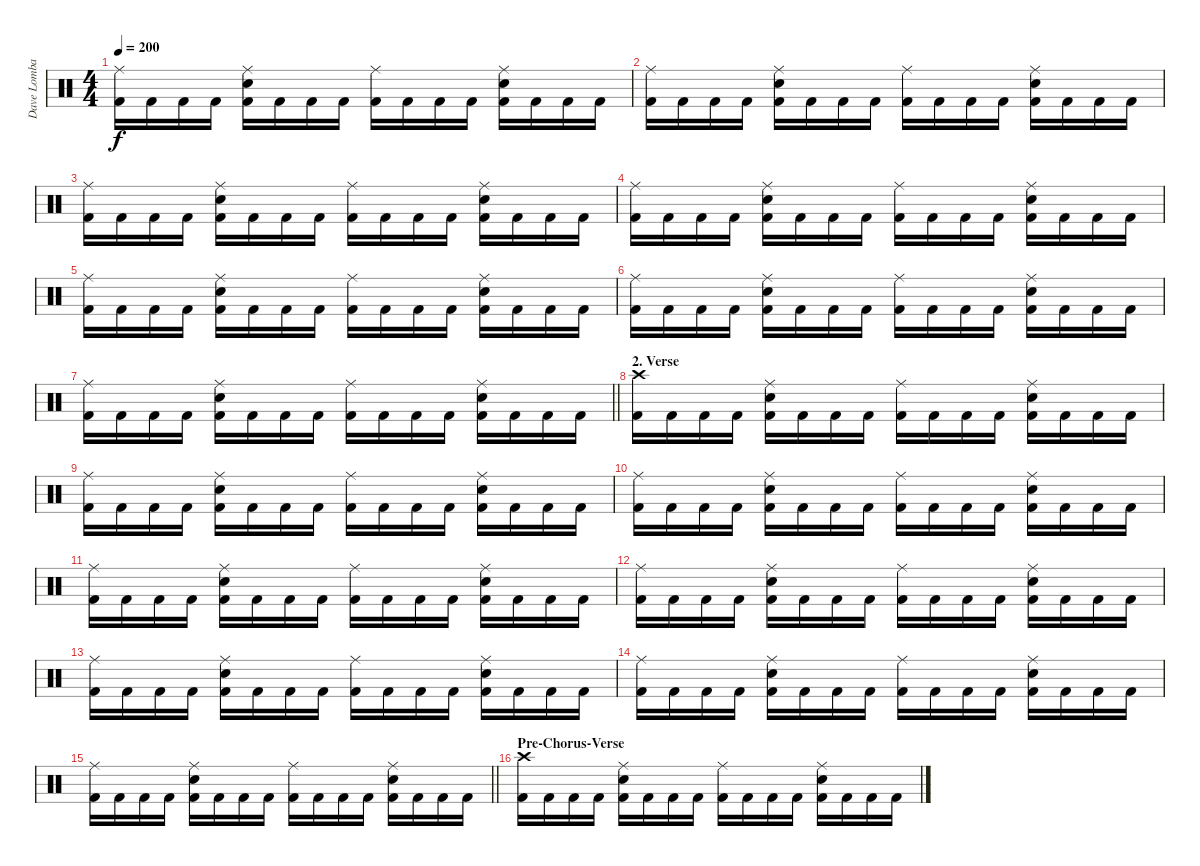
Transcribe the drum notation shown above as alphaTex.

\track ("Dave Lombardo (Drums)" "Dave Lomba") {instrument percussion}
\staff {score}
\articulation defaults
\ts (4 4)
\tempo 200
\clef neutral
\ks c
("Ride (middle)" "Kick (hit) 2").16{dy f} "Kick (hit) 2".16 "Kick (hit) 2".16 "Kick (hit) 2".16 ("Ride (middle)" "Snare (hit) 2" "Kick (hit) 2").16 "Kick (hit) 2".16 "Kick (hit) 2".16 "Kick (hit) 2".16 ("Ride (middle)" "Kick (hit) 2").16 "Kick (hit) 2".16 "Kick (hit) 2".16 "Kick (hit) 2".16 ("Ride (middle)" "Snare (hit) 2" "Kick (hit) 2").16 "Kick (hit) 2".16 "Kick (hit) 2".16 "Kick (hit) 2".16 |
("Ride (middle)" "Kick (hit) 2").16 "Kick (hit) 2".16 "Kick (hit) 2".16 "Kick (hit) 2".16 ("Ride (middle)" "Snare (hit) 2" "Kick (hit) 2").16 "Kick (hit) 2".16 "Kick (hit) 2".16 "Kick (hit) 2".16 ("Ride (middle)" "Kick (hit) 2").16 "Kick (hit) 2".16 "Kick (hit) 2".16 "Kick (hit) 2".16 ("Ride (middle)" "Snare (hit) 2" "Kick (hit) 2").16 "Kick (hit) 2".16 "Kick (hit) 2".16 "Kick (hit) 2".16 |
("Ride (middle)" "Kick (hit) 2").16 "Kick (hit) 2".16 "Kick (hit) 2".16 "Kick (hit) 2".16 ("Ride (middle)" "Snare (hit) 2" "Kick (hit) 2").16 "Kick (hit) 2".16 "Kick (hit) 2".16 "Kick (hit) 2".16 ("Ride (middle)" "Kick (hit) 2").16 "Kick (hit) 2".16 "Kick (hit) 2".16 "Kick (hit) 2".16 ("Ride (middle)" "Snare (hit) 2" "Kick (hit) 2").16 "Kick (hit) 2".16 "Kick (hit) 2".16 "Kick (hit) 2".16 |
("Ride (middle)" "Kick (hit) 2").16 "Kick (hit) 2".16 "Kick (hit) 2".16 "Kick (hit) 2".16 ("Ride (middle)" "Snare (hit) 2" "Kick (hit) 2").16 "Kick (hit) 2".16 "Kick (hit) 2".16 "Kick (hit) 2".16 ("Ride (middle)" "Kick (hit) 2").16 "Kick (hit) 2".16 "Kick (hit) 2".16 "Kick (hit) 2".16 ("Ride (middle)" "Snare (hit) 2" "Kick (hit) 2").16 "Kick (hit) 2".16 "Kick (hit) 2".16 "Kick (hit) 2".16 |
("Ride (middle)" "Kick (hit) 2").16 "Kick (hit) 2".16 "Kick (hit) 2".16 "Kick (hit) 2".16 ("Ride (middle)" "Snare (hit) 2" "Kick (hit) 2").16 "Kick (hit) 2".16 "Kick (hit) 2".16 "Kick (hit) 2".16 ("Ride (middle)" "Kick (hit) 2").16 "Kick (hit) 2".16 "Kick (hit) 2".16 "Kick (hit) 2".16 ("Ride (middle)" "Snare (hit) 2" "Kick (hit) 2").16 "Kick (hit) 2".16 "Kick (hit) 2".16 "Kick (hit) 2".16 |
("Ride (middle)" "Kick (hit) 2").16 "Kick (hit) 2".16 "Kick (hit) 2".16 "Kick (hit) 2".16 ("Ride (middle)" "Snare (hit) 2" "Kick (hit) 2").16 "Kick (hit) 2".16 "Kick (hit) 2".16 "Kick (hit) 2".16 ("Ride (middle)" "Kick (hit) 2").16 "Kick (hit) 2".16 "Kick (hit) 2".16 "Kick (hit) 2".16 ("Ride (middle)" "Snare (hit) 2" "Kick (hit) 2").16 "Kick (hit) 2".16 "Kick (hit) 2".16 "Kick (hit) 2".16 |
\barLineRight lightlight
("Ride (middle)" "Kick (hit) 2").16 "Kick (hit) 2".16 "Kick (hit) 2".16 "Kick (hit) 2".16 ("Ride (middle)" "Snare (hit) 2" "Kick (hit) 2").16 "Kick (hit) 2".16 "Kick (hit) 2".16 "Kick (hit) 2".16 ("Ride (middle)" "Kick (hit) 2").16 "Kick (hit) 2".16 "Kick (hit) 2".16 "Kick (hit) 2".16 ("Ride (middle)" "Snare (hit) 2" "Kick (hit) 2").16 "Kick (hit) 2".16 "Kick (hit) 2".16 "Kick (hit) 2".16 |
\section ("" "2. Verse")
("Crash high (hit)" "Kick (hit) 2").16 "Kick (hit) 2".16 "Kick (hit) 2".16 "Kick (hit) 2".16 ("Ride (middle)" "Snare (hit) 2" "Kick (hit) 2").16 "Kick (hit) 2".16 "Kick (hit) 2".16 "Kick (hit) 2".16 ("Ride (middle)" "Kick (hit) 2").16 "Kick (hit) 2".16 "Kick (hit) 2".16 "Kick (hit) 2".16 ("Ride (middle)" "Snare (hit) 2" "Kick (hit) 2").16 "Kick (hit) 2".16 "Kick (hit) 2".16 "Kick (hit) 2".16 |
("Ride (middle)" "Kick (hit) 2").16 "Kick (hit) 2".16 "Kick (hit) 2".16 "Kick (hit) 2".16 ("Ride (middle)" "Snare (hit) 2" "Kick (hit) 2").16 "Kick (hit) 2".16 "Kick (hit) 2".16 "Kick (hit) 2".16 ("Ride (middle)" "Kick (hit) 2").16 "Kick (hit) 2".16 "Kick (hit) 2".16 "Kick (hit) 2".16 ("Ride (middle)" "Snare (hit) 2" "Kick (hit) 2").16 "Kick (hit) 2".16 "Kick (hit) 2".16 "Kick (hit) 2".16 |
("Ride (middle)" "Kick (hit) 2").16 "Kick (hit) 2".16 "Kick (hit) 2".16 "Kick (hit) 2".16 ("Ride (middle)" "Snare (hit) 2" "Kick (hit) 2").16 "Kick (hit) 2".16 "Kick (hit) 2".16 "Kick (hit) 2".16 ("Ride (middle)" "Kick (hit) 2").16 "Kick (hit) 2".16 "Kick (hit) 2".16 "Kick (hit) 2".16 ("Ride (middle)" "Snare (hit) 2" "Kick (hit) 2").16 "Kick (hit) 2".16 "Kick (hit) 2".16 "Kick (hit) 2".16 |
("Ride (middle)" "Kick (hit) 2").16 "Kick (hit) 2".16 "Kick (hit) 2".16 "Kick (hit) 2".16 ("Ride (middle)" "Snare (hit) 2" "Kick (hit) 2").16 "Kick (hit) 2".16 "Kick (hit) 2".16 "Kick (hit) 2".16 ("Ride (middle)" "Kick (hit) 2").16 "Kick (hit) 2".16 "Kick (hit) 2".16 "Kick (hit) 2".16 ("Ride (middle)" "Snare (hit) 2" "Kick (hit) 2").16 "Kick (hit) 2".16 "Kick (hit) 2".16 "Kick (hit) 2".16 |
("Ride (middle)" "Kick (hit) 2").16 "Kick (hit) 2".16 "Kick (hit) 2".16 "Kick (hit) 2".16 ("Ride (middle)" "Snare (hit) 2" "Kick (hit) 2").16 "Kick (hit) 2".16 "Kick (hit) 2".16 "Kick (hit) 2".16 ("Ride (middle)" "Kick (hit) 2").16 "Kick (hit) 2".16 "Kick (hit) 2".16 "Kick (hit) 2".16 ("Ride (middle)" "Snare (hit) 2" "Kick (hit) 2").16 "Kick (hit) 2".16 "Kick (hit) 2".16 "Kick (hit) 2".16 |
("Ride (middle)" "Kick (hit) 2").16 "Kick (hit) 2".16 "Kick (hit) 2".16 "Kick (hit) 2".16 ("Ride (middle)" "Snare (hit) 2" "Kick (hit) 2").16 "Kick (hit) 2".16 "Kick (hit) 2".16 "Kick (hit) 2".16 ("Ride (middle)" "Kick (hit) 2").16 "Kick (hit) 2".16 "Kick (hit) 2".16 "Kick (hit) 2".16 ("Ride (middle)" "Snare (hit) 2" "Kick (hit) 2").16 "Kick (hit) 2".16 "Kick (hit) 2".16 "Kick (hit) 2".16 |
("Ride (middle)" "Kick (hit) 2").16 "Kick (hit) 2".16 "Kick (hit) 2".16 "Kick (hit) 2".16 ("Ride (middle)" "Snare (hit) 2" "Kick (hit) 2").16 "Kick (hit) 2".16 "Kick (hit) 2".16 "Kick (hit) 2".16 ("Ride (middle)" "Kick (hit) 2").16 "Kick (hit) 2".16 "Kick (hit) 2".16 "Kick (hit) 2".16 ("Ride (middle)" "Snare (hit) 2" "Kick (hit) 2").16 "Kick (hit) 2".16 "Kick (hit) 2".16 "Kick (hit) 2".16 |
\barLineRight lightlight
("Ride (middle)" "Kick (hit) 2").16 "Kick (hit) 2".16 "Kick (hit) 2".16 "Kick (hit) 2".16 ("Ride (middle)" "Snare (hit) 2" "Kick (hit) 2").16 "Kick (hit) 2".16 "Kick (hit) 2".16 "Kick (hit) 2".16 ("Ride (middle)" "Kick (hit) 2").16 "Kick (hit) 2".16 "Kick (hit) 2".16 "Kick (hit) 2".16 ("Ride (middle)" "Snare (hit) 2" "Kick (hit) 2").16 "Kick (hit) 2".16 "Kick (hit) 2".16 "Kick (hit) 2".16 |
\section ("" "Pre-Chorus-Verse")
("Crash high (hit)" "Kick (hit) 2").16 "Kick (hit) 2".16 "Kick (hit) 2".16 "Kick (hit) 2".16 ("Ride (middle)" "Snare (hit) 2" "Kick (hit) 2").16 "Kick (hit) 2".16 "Kick (hit) 2".16 "Kick (hit) 2".16 ("Ride (middle)" "Kick (hit) 2").16 "Kick (hit) 2".16 "Kick (hit) 2".16 "Kick (hit) 2".16 ("Ride (middle)" "Snare (hit) 2" "Kick (hit) 2").16 "Kick (hit) 2".16 "Kick (hit) 2".16 "Kick (hit) 2".16
